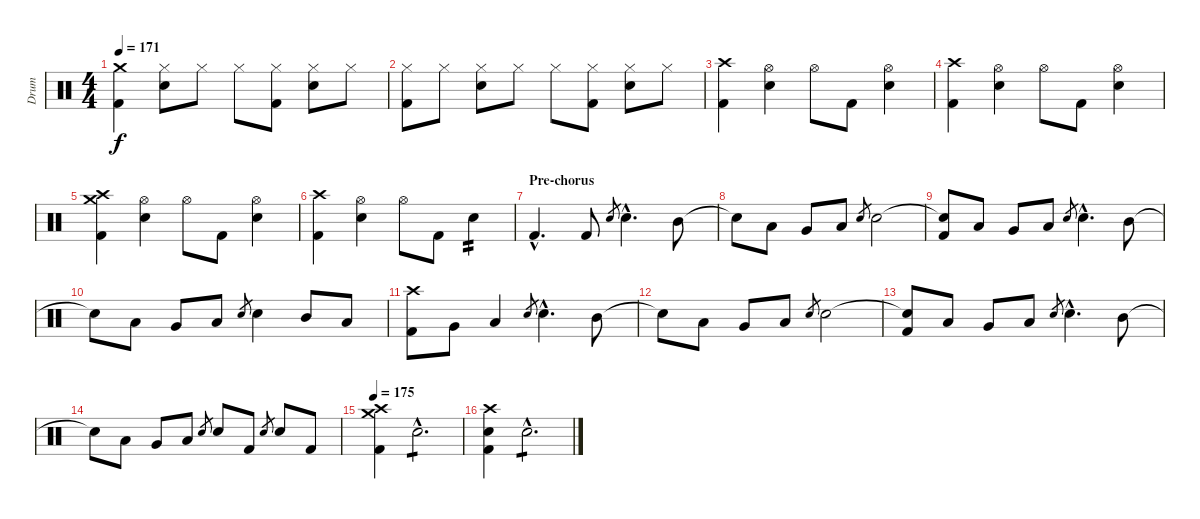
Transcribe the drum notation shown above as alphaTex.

\track ("Drum" "Drum") {instrument percussion}
\staff {score}
\articulation defaults
\ts (4 4)
\tempo 171
\clef neutral
\ks c
("Kick (hit) 2" "Crash medium (hit)").4{dy f} ("Hi-Hat (closed)" "Electric Snare (hit)").8 "Hi-Hat (closed)".8 "Hi-Hat (closed)".8 ("Hi-Hat (closed)" "Kick (hit) 2").8 ("Hi-Hat (closed)" "Electric Snare (hit)").8 "Hi-Hat (closed)".8 |
("Hi-Hat (closed)" "Kick (hit) 2").8 "Hi-Hat (closed)".8 ("Hi-Hat (closed)" "Electric Snare (hit)").8 "Hi-Hat (closed)".8 "Hi-Hat (closed)".8 ("Hi-Hat (closed)" "Kick (hit) 2").8 ("Hi-Hat (closed)" "Electric Snare (hit)").8 "Hi-Hat (closed)".8 |
("Kick (hit) 2" "Crash high (hit)").4 ("Hi-Hat (open)" "Electric Snare (hit)").4 "Hi-Hat (open)".8 "Kick (hit) 2".8 ("Hi-Hat (open)" "Electric Snare (hit)").4 |
("Kick (hit) 2" "Crash high (hit)").4 ("Hi-Hat (open)" "Electric Snare (hit)").4 "Hi-Hat (open)".8 "Kick (hit) 2".8 ("Hi-Hat (open)" "Electric Snare (hit)").4 |
("Kick (hit) 2" "Crash high (hit)" "Crash medium (hit)").4 ("Hi-Hat (open)" "Electric Snare (hit)").4 "Hi-Hat (open)".8 "Kick (hit) 2".8 ("Hi-Hat (open)" "Electric Snare (hit)").4 |
("Kick (hit) 2" "Crash high (hit)").4 ("Hi-Hat (open)" "Electric Snare (hit)").4 "Hi-Hat (open)".8 "Kick (hit) 2".8 "Electric Snare (hit)".4{tp 2} |
\section ("" "Pre-chorus")
"Kick (hit) 2"{hac}.4{d} "Kick (hit) 2".8 "Electric Snare (hit)".8{gr} "Electric Snare (hit)"{hac}.4{d} "Mid Tom (hit)".8 |
"Snare (hit)"{t}.8 "Low Tom (hit)".8 "Very Low Tom (hit)".8 "Low Floor Tom (hit)".8 "Electric Snare (hit)".8{gr} "Electric Snare (hit)".2 |
("Snare (hit)"{t} "Kick (hit) 2").8 "Low Tom (hit)".8 "Very Low Tom (hit)".8 "Low Floor Tom (hit)".8 "Electric Snare (hit)".8{gr} "Electric Snare (hit)"{hac}.4{d} "Mid Tom (hit)".8 |
"Snare (hit)"{t}.8 "Low Tom (hit)".8 "Very Low Tom (hit)".8 "Low Floor Tom (hit)".8 "Electric Snare (hit)".8{gr} "Electric Snare (hit)".4 "Mid Tom (hit)".8 "Low Tom (hit)".8 |
("Kick (hit) 2" "Crash high (hit)").8 "Very Low Tom (hit)".8 "Low Floor Tom (hit)".4 "Electric Snare (hit)".8{gr} "Electric Snare (hit)"{hac}.4{d} "Mid Tom (hit)".8 |
"Snare (hit)"{t}.8 "Low Tom (hit)".8 "Very Low Tom (hit)".8 "Low Floor Tom (hit)".8 "Electric Snare (hit)".8{gr} "Electric Snare (hit)".2 |
("Snare (hit)"{t} "Kick (hit) 2").8 "Low Tom (hit)".8 "Very Low Tom (hit)".8 "Low Floor Tom (hit)".8 "Electric Snare (hit)".8{gr} "Electric Snare (hit)"{hac}.4{d} "Mid Tom (hit)".8 |
"Snare (hit)"{t}.8 "Low Tom (hit)".8 "Very Low Tom (hit)".8 "Low Floor Tom (hit)".8 "Electric Snare (hit)".8{gr} "Electric Snare (hit)".8 "Kick (hit) 2".8 "Electric Snare (hit)".8{gr} "Electric Snare (hit)".8 "Kick (hit) 2".8 |
\tempo 167
\tempo 175
("Kick (hit) 2" "Crash high (hit)" "Crash medium (hit)").4 "Electric Snare (hit)"{hac}.2{d tp 1} |
("Electric Snare (hit)" "Kick (hit) 2" "Crash high (hit)").4 "Electric Snare (hit)"{hac}.2{d tp 1}
